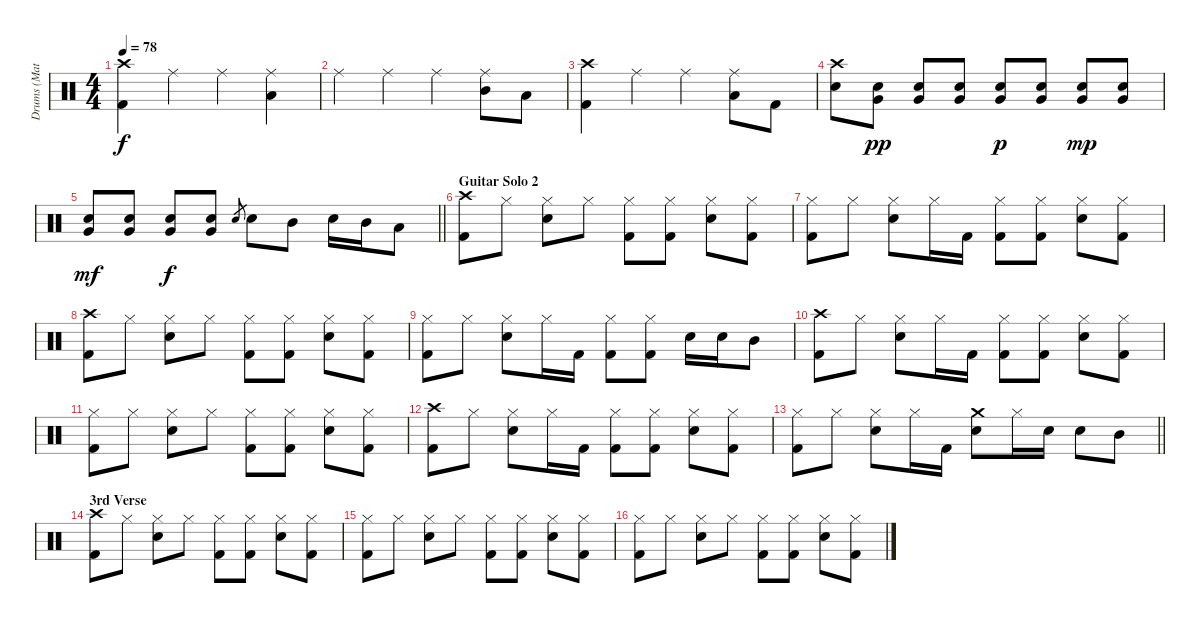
\track ("Drums (Matt)" "Drums (Mat") {instrument percussion}
\staff {score}
\articulation defaults
\ts (4 4)
\tempo 78
\clef neutral
\ks c
("Crash high (hit)" "Kick (hit) 2").4{dy f} "Ride (middle)".4 "Ride (middle)".4 ("Ride (middle)" "Low Tom (hit)").4 |
"Ride (middle)".4 "Ride (middle)".4 "Ride (middle)".4 ("Ride (middle)" "Mid Tom (hit)").8 "Low Tom (hit)".8 |
("Crash high (hit)" "Kick (hit) 2").4 "Ride (middle)".4 "Ride (middle)".4 ("Ride (middle)" "Low Tom (hit)").8 "Kick (hit) 2".8 |
("Crash high (hit)" "Snare (hit) 2").8 ("Very Low Tom (hit)" "Snare (hit) 2").8{dy pp} ("Very Low Tom (hit)" "Snare (hit) 2").8 ("Very Low Tom (hit)" "Snare (hit) 2").8 ("Very Low Tom (hit)" "Snare (hit) 2").8{dy p} ("Very Low Tom (hit)" "Snare (hit) 2").8 ("Very Low Tom (hit)" "Snare (hit) 2").8{dy mp} ("Very Low Tom (hit)" "Snare (hit) 2").8 |
\barLineRight lightlight
("Very Low Tom (hit)" "Snare (hit) 2").8{dy mf} ("Very Low Tom (hit)" "Snare (hit) 2").8 ("Very Low Tom (hit)" "Snare (hit) 2").8{dy f} ("Very Low Tom (hit)" "Snare (hit) 2").8 "Snare (hit) 2".8{gr} "Snare (hit) 2".8 "Mid Tom (hit)".8 "Snare (hit) 2".16 "Mid Tom (hit)".16 "Low Tom (hit)".8 |
\section ("" "Guitar Solo 2")
("Crash high (hit)" "Kick (hit) 2").8 "Hi-Hat (closed)".8 ("Hi-Hat (closed)" "Snare (hit) 2").8 "Hi-Hat (closed)".8 ("Hi-Hat (closed)" "Kick (hit) 2").8 ("Hi-Hat (closed)" "Kick (hit) 2").8 ("Hi-Hat (closed)" "Snare (hit) 2").8 ("Hi-Hat (closed)" "Kick (hit) 2").8 |
("Hi-Hat (closed)" "Kick (hit) 2").8 "Hi-Hat (closed)".8 ("Hi-Hat (closed)" "Snare (hit) 2").8 "Hi-Hat (closed)".16 "Kick (hit) 2".16 ("Hi-Hat (closed)" "Kick (hit) 2").8 ("Hi-Hat (closed)" "Kick (hit) 2").8 ("Hi-Hat (closed)" "Snare (hit) 2").8 ("Hi-Hat (closed)" "Kick (hit) 2").8 |
("Crash high (hit)" "Kick (hit) 2").8 "Hi-Hat (closed)".8 ("Hi-Hat (closed)" "Snare (hit) 2").8 "Hi-Hat (closed)".8 ("Hi-Hat (closed)" "Kick (hit) 2").8 ("Hi-Hat (closed)" "Kick (hit) 2").8 ("Hi-Hat (closed)" "Snare (hit) 2").8 ("Hi-Hat (closed)" "Kick (hit) 2").8 |
("Hi-Hat (closed)" "Kick (hit) 2").8 "Hi-Hat (closed)".8 ("Hi-Hat (closed)" "Snare (hit) 2").8 "Hi-Hat (closed)".16 "Kick (hit) 2".16 ("Hi-Hat (closed)" "Kick (hit) 2").8 ("Hi-Hat (closed)" "Kick (hit) 2").8 "Snare (hit) 2".16 "Snare (hit) 2".16 "Mid Tom (hit)".8 |
("Crash high (hit)" "Kick (hit) 2").8 "Hi-Hat (closed)".8 ("Hi-Hat (closed)" "Snare (hit) 2").8 "Hi-Hat (closed)".16 "Kick (hit) 2".16 ("Hi-Hat (closed)" "Kick (hit) 2").8 ("Hi-Hat (closed)" "Kick (hit) 2").8 ("Hi-Hat (closed)" "Snare (hit) 2").8 ("Hi-Hat (closed)" "Kick (hit) 2").8 |
("Hi-Hat (closed)" "Kick (hit) 2").8 "Hi-Hat (closed)".8 ("Hi-Hat (closed)" "Snare (hit) 2").8 "Hi-Hat (closed)".8 ("Hi-Hat (closed)" "Kick (hit) 2").8 ("Hi-Hat (closed)" "Kick (hit) 2").8 ("Hi-Hat (closed)" "Snare (hit) 2").8 ("Hi-Hat (closed)" "Kick (hit) 2").8 |
("Crash high (hit)" "Kick (hit) 2").8 "Hi-Hat (closed)".8 ("Hi-Hat (closed)" "Snare (hit) 2").8 "Hi-Hat (closed)".16 "Kick (hit) 2".16 ("Hi-Hat (closed)" "Kick (hit) 2").8 ("Hi-Hat (closed)" "Kick (hit) 2").8 ("Hi-Hat (closed)" "Snare (hit) 2").8 ("Hi-Hat (closed)" "Kick (hit) 2").8 |
\barLineRight lightlight
("Hi-Hat (closed)" "Kick (hit) 2").8 "Hi-Hat (closed)".8 ("Hi-Hat (closed)" "Snare (hit) 2").8 "Hi-Hat (closed)".16 "Kick (hit) 2".16 ("Crash medium (hit)" "Snare (hit) 2").8 "Hi-Hat (closed)".16 "Snare (hit) 2".16 "Snare (hit) 2".8 "Mid Tom (hit)".8 |
\section ("" "3rd Verse")
("Crash high (hit)" "Kick (hit) 2").8 "Hi-Hat (closed)".8 ("Hi-Hat (closed)" "Snare (hit) 2").8 "Hi-Hat (closed)".8 ("Hi-Hat (closed)" "Kick (hit) 2").8 ("Hi-Hat (closed)" "Kick (hit) 2").8 ("Hi-Hat (closed)" "Snare (hit) 2").8 ("Hi-Hat (closed)" "Kick (hit) 2").8 |
("Hi-Hat (closed)" "Kick (hit) 2").8 "Hi-Hat (closed)".8 ("Hi-Hat (closed)" "Snare (hit) 2").8 "Hi-Hat (closed)".8 ("Hi-Hat (closed)" "Kick (hit) 2").8 ("Hi-Hat (closed)" "Kick (hit) 2").8 ("Hi-Hat (closed)" "Snare (hit) 2").8 ("Hi-Hat (closed)" "Kick (hit) 2").8 |
("Hi-Hat (closed)" "Kick (hit) 2").8 "Hi-Hat (closed)".8 ("Hi-Hat (closed)" "Snare (hit) 2").8 "Hi-Hat (closed)".8 ("Hi-Hat (closed)" "Kick (hit) 2").8 ("Hi-Hat (closed)" "Kick (hit) 2").8 ("Hi-Hat (closed)" "Snare (hit) 2").8 ("Hi-Hat (closed)" "Kick (hit) 2").8
